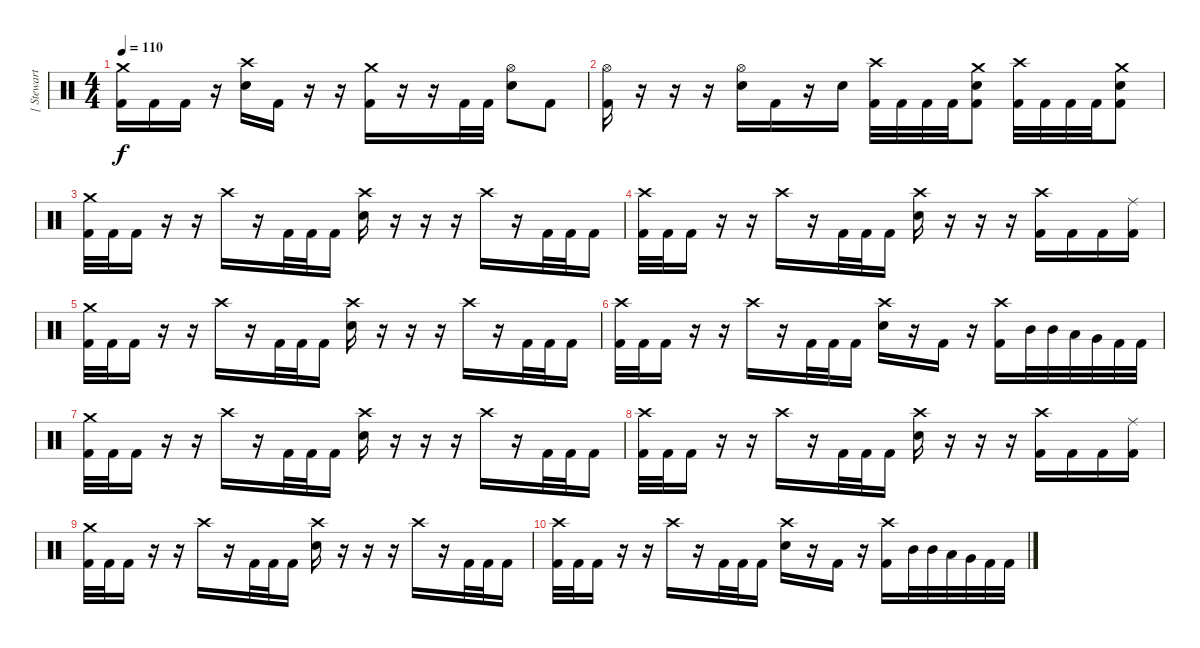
\track ("[ Stewart ]" "[ Stewart ") {instrument percussion}
\staff {score}
\articulation defaults
\ts (4 4)
\tempo 110
\clef neutral
\ks c
("Kick (hit) 2" "Crash medium (hit)").16{dy f} "Kick (hit) 2".16 "Kick (hit) 2".16 r.16 ("Electric Snare (hit)" "Crash high (hit)").16 "Kick (hit) 2".16 r.16 r.16 ("Kick (hit) 2" "Crash medium (hit)").16 r.16 r.16 "Kick (hit) 2".32 "Kick (hit) 2".32 ("Electric Snare (hit)" "Hi-Hat (open)").8 "Kick (hit) 2".8 |
("Kick (hit) 2" "Hi-Hat (open)").16 r.16 r.16 r.16 ("Electric Snare (hit)" "Hi-Hat (open)").16 "Kick (hit) 2".16 r.16 "Electric Snare (hit)".16 ("Kick (hit) 2" "Crash high (hit)").32 "Kick (hit) 2".32 "Kick (hit) 2".32 "Kick (hit) 2".32 ("Kick (hit) 2" "Electric Snare (hit)" "Crash medium (hit)").8 ("Kick (hit) 2" "Crash high (hit)").32 "Kick (hit) 2".32 "Kick (hit) 2".32 "Kick (hit) 2".32 ("Kick (hit) 2" "Electric Snare (hit)" "Crash medium (hit)").8 |
("Kick (hit) 2" "Crash medium (hit)").32 "Kick (hit) 2".32 "Kick (hit) 2".16 r.16 r.16 "Crash high (hit)".16 r.16 "Kick (hit) 2".32 "Kick (hit) 2".32 "Kick (hit) 2".16 ("Electric Snare (hit)" "Crash high (hit)").16 r.16 r.16 r.16 "Crash high (hit)".16 r.16 "Kick (hit) 2".32 "Kick (hit) 2".32 "Kick (hit) 2".16 |
("Kick (hit) 2" "Crash high (hit)").32 "Kick (hit) 2".32 "Kick (hit) 2".16 r.16 r.16 "Crash high (hit)".16 r.16 "Kick (hit) 2".32 "Kick (hit) 2".32 "Kick (hit) 2".16 ("Electric Snare (hit)" "Crash high (hit)").16 r.16 r.16 r.16 ("Kick (hit) 2" "Crash high (hit)").16 "Kick (hit) 2".16 "Kick (hit) 2".16 ("Kick (hit) 2" "Ride (middle)").16 |
("Kick (hit) 2" "Crash medium (hit)").32 "Kick (hit) 2".32 "Kick (hit) 2".16 r.16 r.16 "Crash high (hit)".16 r.16 "Kick (hit) 2".32 "Kick (hit) 2".32 "Kick (hit) 2".16 ("Electric Snare (hit)" "Crash high (hit)").16 r.16 r.16 r.16 "Crash high (hit)".16 r.16 "Kick (hit) 2".32 "Kick (hit) 2".32 "Kick (hit) 2".16 |
("Kick (hit) 2" "Crash high (hit)").32 "Kick (hit) 2".32 "Kick (hit) 2".16 r.16 r.16 "Crash high (hit)".16 r.16 "Kick (hit) 2".32 "Kick (hit) 2".32 "Kick (hit) 2".16 ("Electric Snare (hit)" "Crash high (hit)").16 r.16 "Kick (hit) 2".16 r.16 ("Kick (hit) 2" "Crash high (hit)").16 "Mid Tom (hit)".32 "Mid Tom (hit)".32 "Low Tom (hit)".32 "Very Low Tom (hit)".32 "Kick (hit) 2".32 "Kick (hit) 2".32 |
("Kick (hit) 2" "Crash medium (hit)").32{volume 0} "Kick (hit) 2".32 "Kick (hit) 2".16 r.16 r.16 "Crash high (hit)".16 r.16 "Kick (hit) 2".32 "Kick (hit) 2".32 "Kick (hit) 2".16 ("Electric Snare (hit)" "Crash high (hit)").16 r.16 r.16 r.16 "Crash high (hit)".16 r.16 "Kick (hit) 2".32 "Kick (hit) 2".32 "Kick (hit) 2".16 |
("Kick (hit) 2" "Crash high (hit)").32 "Kick (hit) 2".32 "Kick (hit) 2".16 r.16 r.16 "Crash high (hit)".16 r.16 "Kick (hit) 2".32 "Kick (hit) 2".32 "Kick (hit) 2".16 ("Electric Snare (hit)" "Crash high (hit)").16 r.16 r.16 r.16 ("Kick (hit) 2" "Crash high (hit)").16 "Kick (hit) 2".16 "Kick (hit) 2".16 ("Kick (hit) 2" "Ride (middle)").16 |
("Kick (hit) 2" "Crash medium (hit)").32 "Kick (hit) 2".32 "Kick (hit) 2".16 r.16 r.16 "Crash high (hit)".16 r.16 "Kick (hit) 2".32 "Kick (hit) 2".32 "Kick (hit) 2".16 ("Electric Snare (hit)" "Crash high (hit)").16 r.16 r.16 r.16 "Crash high (hit)".16 r.16 "Kick (hit) 2".32 "Kick (hit) 2".32 "Kick (hit) 2".16 |
("Kick (hit) 2" "Crash high (hit)").32 "Kick (hit) 2".32 "Kick (hit) 2".16 r.16 r.16 "Crash high (hit)".16 r.16 "Kick (hit) 2".32 "Kick (hit) 2".32 "Kick (hit) 2".16 ("Electric Snare (hit)" "Crash high (hit)").16 r.16 "Kick (hit) 2".16 r.16 ("Kick (hit) 2" "Crash high (hit)").16 "Mid Tom (hit)".32 "Mid Tom (hit)".32 "Low Tom (hit)".32 "Very Low Tom (hit)".32 "Kick (hit) 2".32 "Kick (hit) 2".32
